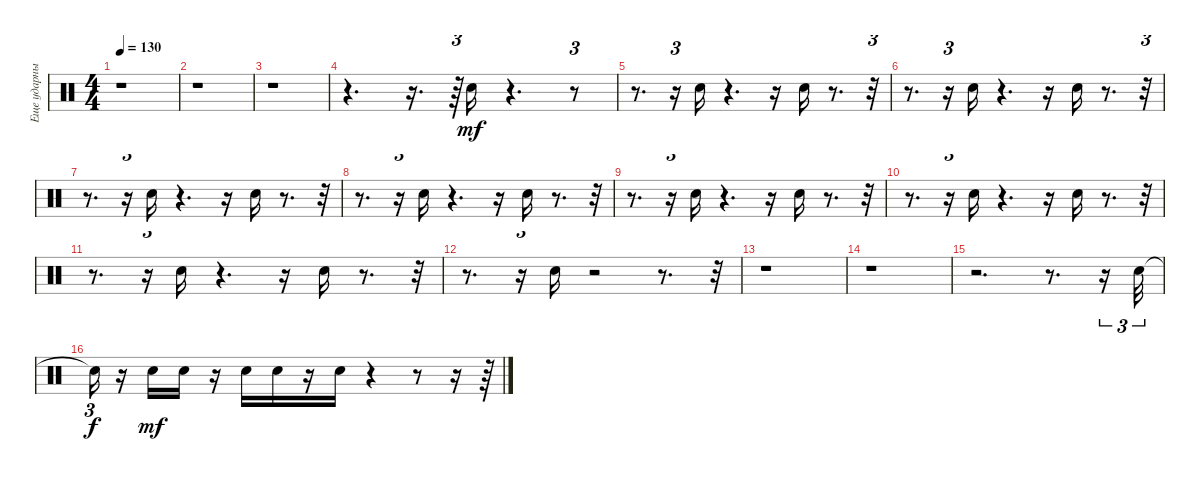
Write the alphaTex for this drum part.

\track ("Еще ударные" "Еще ударны") {instrument percussion}
\staff {score}
\articulation defaults
\ts (4 4)
\tempo 130
\clef neutral
\ks c
r.1{dy mf} |
r.1 |
r.1 |
r.4{d} r.16{d} r.64{tu (3 2)} "Electric Snare (hit)".16 r.4{d} r.8{tu (3 2)} |
r.8{d} r.16{tu (3 2)} "Electric Snare (hit)".16 r.4{d} r.16 "Electric Snare (hit)".16 r.8{d} r.32{tu (3 2)} |
r.8{d} r.16{tu (3 2)} "Electric Snare (hit)".16 r.4{d} r.16 "Electric Snare (hit)".16 r.8{d} r.32{tu (3 2)} |
r.8{d} r.16{tu (3 2)} "Electric Snare (hit)".16 r.4{d} r.16 "Electric Snare (hit)".16 r.8{d} r.32{tu (3 2)} |
r.8{d} r.16{tu (3 2)} "Electric Snare (hit)".16 r.4{d} r.16 "Electric Snare (hit)".16 r.8{d} r.32{tu (3 2)} |
r.8{d} r.16{tu (3 2)} "Electric Snare (hit)".16 r.4{d} r.16 "Electric Snare (hit)".16 r.8{d} r.32{tu (3 2)} |
r.8{d} r.16{tu (3 2)} "Electric Snare (hit)".16 r.4{d} r.16 "Electric Snare (hit)".16 r.8{d} r.32{tu (3 2)} |
r.8{d} r.16{tu (3 2)} "Electric Snare (hit)".16 r.4{d} r.16 "Electric Snare (hit)".16 r.8{d} r.32{tu (3 2)} |
r.8{d} r.16{tu (3 2)} "Electric Snare (hit)".16 r.2 r.8{d} r.32{tu (3 2)} |
r.1 |
r.1 |
r.2{d} r.8{d} r.16{tu (3 2)} "Electric Snare (hit)".32{tu (3 2)} |
"Snare (hit)"{t}.16{tu (3 2) dy f} r.16 "Electric Snare (hit)".16{dy mf} "Electric Snare (hit)".16 r.16 "Electric Snare (hit)".16 "Electric Snare (hit)".16 r.16 "Electric Snare (hit)".16 r.4 r.8 r.16 r.64
